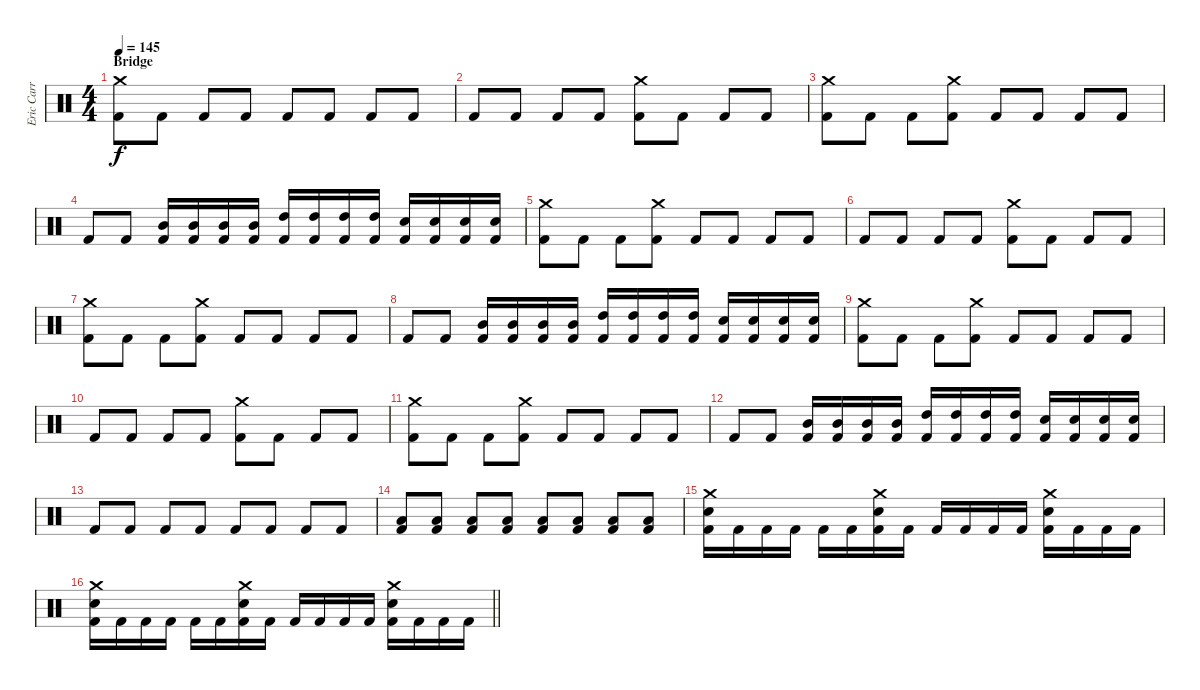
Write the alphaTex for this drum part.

\track ("Eric Carr" "Eric Carr") {instrument percussion}
\staff {score}
\articulation defaults
\ts (4 4)
\section ("" "Bridge")
\tempo 145
\clef neutral
\ks c
("Crash medium (hit)" "Kick (hit) 2").8{dy f} "Kick (hit) 2".8 "Kick (hit) 2".8 "Kick (hit) 2".8 "Kick (hit) 2".8 "Kick (hit) 2".8 "Kick (hit) 2".8 "Kick (hit) 2".8 |
"Kick (hit) 2".8 "Kick (hit) 2".8 "Kick (hit) 2".8 "Kick (hit) 2".8 ("Crash medium (hit)" "Kick (hit) 2").8 "Kick (hit) 2".8 "Kick (hit) 2".8 "Kick (hit) 2".8 |
("Crash medium (hit)" "Kick (hit) 2").8 "Kick (hit) 2".8 "Kick (hit) 2".8 ("Crash medium (hit)" "Kick (hit) 2").8 "Kick (hit) 2".8 "Kick (hit) 2".8 "Kick (hit) 2".8 "Kick (hit) 2".8 |
"Kick (hit) 2".8 "Kick (hit) 2".8 ("Mid Tom (hit)" "Kick (hit) 2").16 ("Mid Tom (hit)" "Kick (hit) 2").16 ("Mid Tom (hit)" "Kick (hit) 2").16 ("Mid Tom (hit)" "Kick (hit) 2").16 ("High Tom (hit)" "Kick (hit) 2").16 ("High Tom (hit)" "Kick (hit) 2").16 ("High Tom (hit)" "Kick (hit) 2").16 ("High Tom (hit)" "Kick (hit) 2").16 ("Snare (hit) 2" "Kick (hit) 2").16 ("Snare (hit) 2" "Kick (hit) 2").16 ("Snare (hit) 2" "Kick (hit) 2").16 ("Snare (hit) 2" "Kick (hit) 2").16 |
("Crash medium (hit)" "Kick (hit) 2").8 "Kick (hit) 2".8 "Kick (hit) 2".8 ("Crash medium (hit)" "Kick (hit) 2").8 "Kick (hit) 2".8 "Kick (hit) 2".8 "Kick (hit) 2".8 "Kick (hit) 2".8 |
"Kick (hit) 2".8 "Kick (hit) 2".8 "Kick (hit) 2".8 "Kick (hit) 2".8 ("Crash medium (hit)" "Kick (hit) 2").8 "Kick (hit) 2".8 "Kick (hit) 2".8 "Kick (hit) 2".8 |
("Crash medium (hit)" "Kick (hit) 2").8 "Kick (hit) 2".8 "Kick (hit) 2".8 ("Crash medium (hit)" "Kick (hit) 2").8 "Kick (hit) 2".8 "Kick (hit) 2".8 "Kick (hit) 2".8 "Kick (hit) 2".8 |
"Kick (hit) 2".8 "Kick (hit) 2".8 ("Mid Tom (hit)" "Kick (hit) 2").16 ("Mid Tom (hit)" "Kick (hit) 2").16 ("Mid Tom (hit)" "Kick (hit) 2").16 ("Mid Tom (hit)" "Kick (hit) 2").16 ("High Tom (hit)" "Kick (hit) 2").16 ("High Tom (hit)" "Kick (hit) 2").16 ("High Tom (hit)" "Kick (hit) 2").16 ("High Tom (hit)" "Kick (hit) 2").16 ("Snare (hit) 2" "Kick (hit) 2").16 ("Snare (hit) 2" "Kick (hit) 2").16 ("Snare (hit) 2" "Kick (hit) 2").16 ("Snare (hit) 2" "Kick (hit) 2").16 |
("Crash medium (hit)" "Kick (hit) 2").8 "Kick (hit) 2".8 "Kick (hit) 2".8 ("Crash medium (hit)" "Kick (hit) 2").8 "Kick (hit) 2".8 "Kick (hit) 2".8 "Kick (hit) 2".8 "Kick (hit) 2".8 |
"Kick (hit) 2".8 "Kick (hit) 2".8 "Kick (hit) 2".8 "Kick (hit) 2".8 ("Crash medium (hit)" "Kick (hit) 2").8 "Kick (hit) 2".8 "Kick (hit) 2".8 "Kick (hit) 2".8 |
("Crash medium (hit)" "Kick (hit) 2").8 "Kick (hit) 2".8 "Kick (hit) 2".8 ("Crash medium (hit)" "Kick (hit) 2").8 "Kick (hit) 2".8 "Kick (hit) 2".8 "Kick (hit) 2".8 "Kick (hit) 2".8 |
"Kick (hit) 2".8 "Kick (hit) 2".8 ("Mid Tom (hit)" "Kick (hit) 2").16 ("Mid Tom (hit)" "Kick (hit) 2").16 ("Mid Tom (hit)" "Kick (hit) 2").16 ("Mid Tom (hit)" "Kick (hit) 2").16 ("High Tom (hit)" "Kick (hit) 2").16 ("High Tom (hit)" "Kick (hit) 2").16 ("High Tom (hit)" "Kick (hit) 2").16 ("High Tom (hit)" "Kick (hit) 2").16 ("Snare (hit) 2" "Kick (hit) 2").16 ("Snare (hit) 2" "Kick (hit) 2").16 ("Snare (hit) 2" "Kick (hit) 2").16 ("Snare (hit) 2" "Kick (hit) 2").16 |
"Kick (hit) 2".8 "Kick (hit) 2".8 "Kick (hit) 2".8 "Kick (hit) 2".8 "Kick (hit) 2".8 "Kick (hit) 2".8 "Kick (hit) 2".8 "Kick (hit) 2".8 |
("Low Tom (hit)" "Kick (hit) 2").8 ("Low Tom (hit)" "Kick (hit) 2").8 ("Low Tom (hit)" "Kick (hit) 2").8 ("Low Tom (hit)" "Kick (hit) 2").8 ("Low Tom (hit)" "Kick (hit) 2").8 ("Low Tom (hit)" "Kick (hit) 2").8 ("Low Tom (hit)" "Kick (hit) 2").8 ("Low Tom (hit)" "Kick (hit) 2").8 |
("Snare (hit) 2" "Crash medium (hit)" "Kick (hit) 2").16 "Kick (hit) 2".16 "Kick (hit) 2".16 "Kick (hit) 2".16 "Kick (hit) 2".16 "Kick (hit) 2".16 ("Snare (hit) 2" "Crash medium (hit)" "Kick (hit) 2").16 "Kick (hit) 2".16 "Kick (hit) 2".16 "Kick (hit) 2".16 "Kick (hit) 2".16 "Kick (hit) 2".16 ("Snare (hit) 2" "Crash medium (hit)" "Kick (hit) 2").16 "Kick (hit) 2".16 "Kick (hit) 2".16 "Kick (hit) 2".16 |
\barLineRight lightlight
("Snare (hit) 2" "Crash medium (hit)" "Kick (hit) 2").16 "Kick (hit) 2".16 "Kick (hit) 2".16 "Kick (hit) 2".16 "Kick (hit) 2".16 "Kick (hit) 2".16 ("Snare (hit) 2" "Crash medium (hit)" "Kick (hit) 2").16 "Kick (hit) 2".16 "Kick (hit) 2".16 "Kick (hit) 2".16 "Kick (hit) 2".16 "Kick (hit) 2".16 ("Snare (hit) 2" "Crash medium (hit)" "Kick (hit) 2").16 "Kick (hit) 2".16 "Kick (hit) 2".16 "Kick (hit) 2".16
